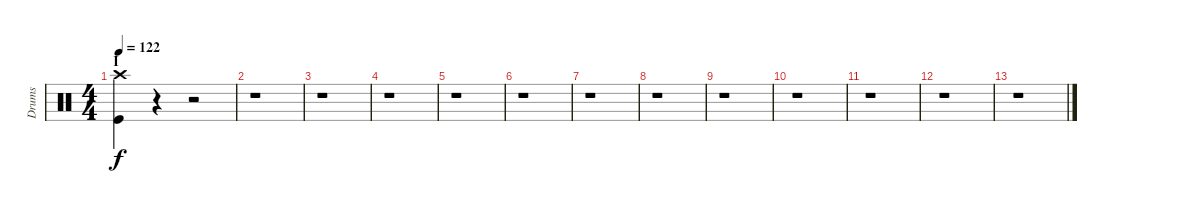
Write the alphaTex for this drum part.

\track ("Drums" "Drums") {instrument percussion}
\staff {score}
\articulation defaults
\ts (4 4)
\section ("" "I")
\tempo 122
\clef neutral
\ks c
("Crash high (hit)" "Kick (hit)").4{dy f} r.4 r.2 |
r.1 |
r.1 |
r.1 |
r.1 |
r.1 |
r.1 |
r.1 |
r.1 |
r.1 |
r.1 |
r.1 |
r.1
